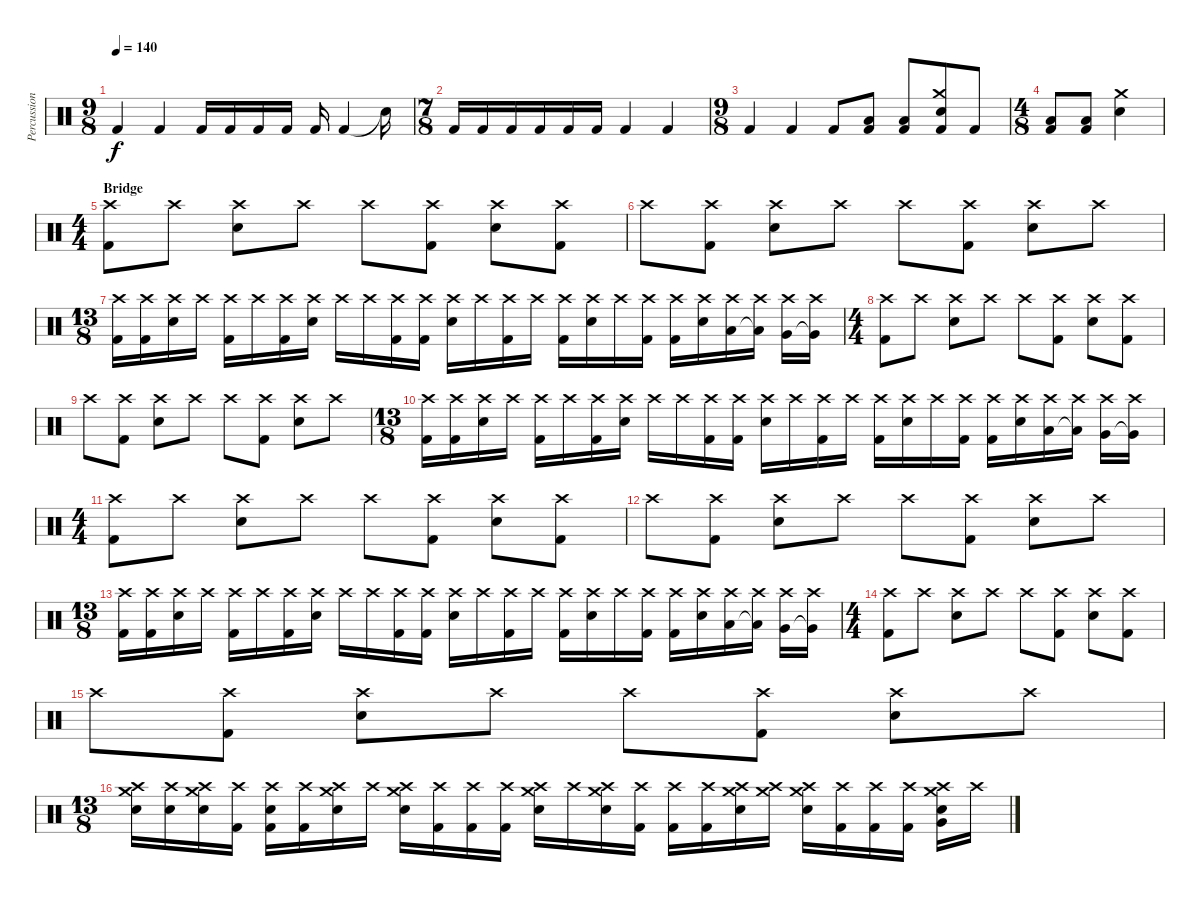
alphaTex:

\track ("Percussion" "Percussion") {instrument percussion}
\staff {score}
\articulation defaults
\ts (9 8)
\tempo 140
\clef neutral
\ks c "Kick (hit) 2".4{dy f} "Kick (hit) 2".4 "Kick (hit) 2".16 "Kick (hit) 2".16 "Kick (hit) 2".16 "Kick (hit) 2".16 "Kick (hit) 2".16 "Kick (hit) 2".4 "Snare (hit)"{t}.16
|
\ts (7 8)
"Kick (hit) 2".16 "Kick (hit) 2".16 "Kick (hit) 2".16 "Kick (hit) 2".16 "Kick (hit) 2".16 "Kick (hit) 2".16 "Kick (hit) 2".4 "Kick (hit) 2".4 |
\ts (9 8)
"Kick (hit) 2".4 "Kick (hit) 2".4 "Kick (hit) 2".8 ("Low Tom (hit)" "Kick (hit) 2").8 ("Low Tom (hit)" "Kick (hit) 2").8 ("Crash medium (hit)" "Electric Snare (hit)" "Kick (hit) 2").8 "Kick (hit) 2".8 |
\ts (4 8)
("Low Tom (hit)" "Kick (hit) 2").8 ("Low Tom (hit)" "Kick (hit) 2").8 ("Crash medium (hit)" "Electric Snare (hit)").4 |
\ts (4 4)
\section ("" "Bridge")
("Crash high (hit)" "Kick (hit) 2").8 "Crash high (hit)".8 ("Crash high (hit)" "Electric Snare (hit)").8 "Crash high (hit)".8 "Crash high (hit)".8 ("Crash high (hit)" "Kick (hit) 2").8 ("Crash high (hit)" "Electric Snare (hit)").8 ("Crash high (hit)" "Kick (hit) 2").8 |
"Crash high (hit)".8 ("Crash high (hit)" "Kick (hit) 2").8 ("Crash high (hit)" "Electric Snare (hit)").8 "Crash high (hit)".8 "Crash high (hit)".8 ("Crash high (hit)" "Kick (hit) 2").8 ("Crash high (hit)" "Electric Snare (hit)").8 "Crash high (hit)".8 |
\ts (13 8)
("Crash high (hit)" "Kick (hit) 2").16 ("Crash high (hit)"{x} "Kick (hit) 2").16 ("Crash high (hit)" "Electric Snare (hit)").16 "Crash high (hit)"{x}.16 ("Crash high (hit)" "Kick (hit) 2").16 "Crash high (hit)"{x}.16 ("Crash high (hit)" "Kick (hit) 2").16 ("Crash high (hit)"{x} "Electric Snare (hit)").16 "Crash high (hit)".16 "Crash high (hit)"{x}.16 ("Crash high (hit)" "Kick (hit) 2").16 ("Crash high (hit)"{x} "Kick (hit) 2").16 ("Crash high (hit)" "Electric Snare (hit)").16 "Crash high (hit)"{x}.16 ("Crash high (hit)" "Kick (hit) 2").16 "Crash high (hit)"{x}.16 ("Crash high (hit)" "Kick (hit) 2").16 ("Crash high (hit)"{x} "Electric Snare (hit)").16 "Crash high (hit)".16 ("Crash high (hit)"{x} "Kick (hit) 2").16 ("Crash high (hit)" "Kick (hit) 2").16 ("Crash high (hit)"{x} "Electric Snare (hit)").16 ("Crash high (hit)" "Low Tom (hit)").16 ("Crash high (hit)"{x} "Low Tom (hit)"{t}).16 ("Crash high (hit)" "Very Low Tom (hit)").16 ("Crash high (hit)"{x} "Very Low Tom (hit)"{t}).16 |
\ts (4 4)
("Crash high (hit)" "Kick (hit) 2").8 "Crash high (hit)".8 ("Crash high (hit)" "Electric Snare (hit)").8 "Crash high (hit)".8 "Crash high (hit)".8 ("Crash high (hit)" "Kick (hit) 2").8 ("Crash high (hit)" "Electric Snare (hit)").8 ("Crash high (hit)" "Kick (hit) 2").8 |
"Crash high (hit)".8 ("Crash high (hit)" "Kick (hit) 2").8 ("Crash high (hit)" "Electric Snare (hit)").8 "Crash high (hit)".8 "Crash high (hit)".8 ("Crash high (hit)" "Kick (hit) 2").8 ("Crash high (hit)" "Electric Snare (hit)").8 "Crash high (hit)".8 |
\ts (13 8)
("Crash high (hit)" "Kick (hit) 2").16 ("Crash high (hit)"{x} "Kick (hit) 2").16 ("Crash high (hit)" "Electric Snare (hit)").16 "Crash high (hit)"{x}.16 ("Crash high (hit)" "Kick (hit) 2").16 "Crash high (hit)"{x}.16 ("Crash high (hit)" "Kick (hit) 2").16 ("Crash high (hit)"{x} "Electric Snare (hit)").16 "Crash high (hit)".16 "Crash high (hit)"{x}.16 ("Crash high (hit)" "Kick (hit) 2").16 ("Crash high (hit)"{x} "Kick (hit) 2").16 ("Crash high (hit)" "Electric Snare (hit)").16 "Crash high (hit)"{x}.16 ("Crash high (hit)" "Kick (hit) 2").16 "Crash high (hit)"{x}.16 ("Crash high (hit)" "Kick (hit) 2").16 ("Crash high (hit)"{x} "Electric Snare (hit)").16 "Crash high (hit)".16 ("Crash high (hit)"{x} "Kick (hit) 2").16 ("Crash high (hit)" "Kick (hit) 2").16 ("Crash high (hit)"{x} "Electric Snare (hit)").16 ("Crash high (hit)" "Low Tom (hit)").16 ("Crash high (hit)"{x} "Low Tom (hit)"{t}).16 ("Crash high (hit)" "Very Low Tom (hit)").16 ("Crash high (hit)"{x} "Very Low Tom (hit)"{t}).16 |
\ts (4 4)
("Crash high (hit)" "Kick (hit) 2").8 "Crash high (hit)".8 ("Crash high (hit)" "Electric Snare (hit)").8 "Crash high (hit)".8 "Crash high (hit)".8 ("Crash high (hit)" "Kick (hit) 2").8 ("Crash high (hit)" "Electric Snare (hit)").8 ("Crash high (hit)" "Kick (hit) 2").8 |
"Crash high (hit)".8 ("Crash high (hit)" "Kick (hit) 2").8 ("Crash high (hit)" "Electric Snare (hit)").8 "Crash high (hit)".8 "Crash high (hit)".8 ("Crash high (hit)" "Kick (hit) 2").8 ("Crash high (hit)" "Electric Snare (hit)").8 "Crash high (hit)".8 |
\ts (13 8)
("Crash high (hit)" "Kick (hit) 2").16 ("Crash high (hit)"{x} "Kick (hit) 2").16 ("Crash high (hit)" "Electric Snare (hit)").16 "Crash high (hit)"{x}.16 ("Crash high (hit)" "Kick (hit) 2").16 "Crash high (hit)"{x}.16 ("Crash high (hit)" "Kick (hit) 2").16 ("Crash high (hit)"{x} "Electric Snare (hit)").16 "Crash high (hit)".16 "Crash high (hit)"{x}.16 ("Crash high (hit)" "Kick (hit) 2").16 ("Crash high (hit)"{x} "Kick (hit) 2").16 ("Crash high (hit)" "Electric Snare (hit)").16 "Crash high (hit)"{x}.16 ("Crash high (hit)" "Kick (hit) 2").16 "Crash high (hit)"{x}.16 ("Crash high (hit)" "Kick (hit) 2").16 ("Crash high (hit)"{x} "Electric Snare (hit)").16 "Crash high (hit)".16 ("Crash high (hit)"{x} "Kick (hit) 2").16 ("Crash high (hit)" "Kick (hit) 2").16 ("Crash high (hit)"{x} "Electric Snare (hit)").16 ("Crash high (hit)" "Low Tom (hit)").16 ("Crash high (hit)"{x} "Low Tom (hit)"{t}).16 ("Crash high (hit)" "Very Low Tom (hit)").16 ("Crash high (hit)"{x} "Very Low Tom (hit)"{t}).16 |
\ts (4 4)
("Crash high (hit)" "Kick (hit) 2").8 "Crash high (hit)".8 ("Crash high (hit)" "Electric Snare (hit)").8 "Crash high (hit)".8 "Crash high (hit)".8 ("Crash high (hit)" "Kick (hit) 2").8 ("Crash high (hit)" "Electric Snare (hit)").8 ("Crash high (hit)" "Kick (hit) 2").8 |
"Crash high (hit)".8 ("Crash high (hit)" "Kick (hit) 2").8 ("Crash high (hit)" "Electric Snare (hit)").8 "Crash high (hit)".8 "Crash high (hit)".8 ("Crash high (hit)" "Kick (hit) 2").8 ("Crash high (hit)" "Electric Snare (hit)").8 "Crash high (hit)".8 |
\ts (13 8)
("Crash high (hit)" "Crash medium (hit)" "Electric Snare (hit)").16 ("Crash high (hit)"{x} "Electric Snare (hit)"{x}).16 ("Crash high (hit)" "Crash medium (hit)" "Electric Snare (hit)").16 ("Crash high (hit)"{x} "Kick (hit) 2").16 ("Crash high (hit)"{x} "Electric Snare (hit)"{x} "Kick (hit) 2").16 ("Crash high (hit)"{x} "Kick (hit) 2").16 ("Crash high (hit)" "Crash medium (hit)" "Electric Snare (hit)").16 "Crash high (hit)"{x}.16 ("Crash high (hit)" "Crash medium (hit)" "Electric Snare (hit)").16 ("Crash high (hit)"{x} "Kick (hit) 2").16 ("Crash high (hit)"{x} "Kick (hit) 2").16 ("Crash high (hit)"{x} "Kick (hit) 2").16 ("Crash high (hit)" "Crash medium (hit)" "Electric Snare (hit)").16 "Crash high (hit)"{x}.16 ("Crash high (hit)" "Crash medium (hit)" "Electric Snare (hit)").16 ("Crash high (hit)"{x} "Kick (hit) 2").16 ("Crash high (hit)"{x} "Kick (hit) 2").16 ("Crash high (hit)"{x} "Kick (hit) 2").16 ("Crash high (hit)" "Crash medium (hit)" "Electric Snare (hit)").16 ("Crash high (hit)"{x} "Crash medium (hit)"{x}).16 ("Crash high (hit)" "Crash medium (hit)" "Electric Snare (hit)").16 ("Crash high (hit)"{x} "Kick (hit) 2").16 ("Crash high (hit)"{x} "Kick (hit) 2").16 ("Crash high (hit)"{x} "Kick (hit) 2").16 ("Crash high (hit)" "Crash medium (hit)" "Electric Snare (hit)" "Very Low Tom (hit)").16 "Crash high (hit)"{x}.16
